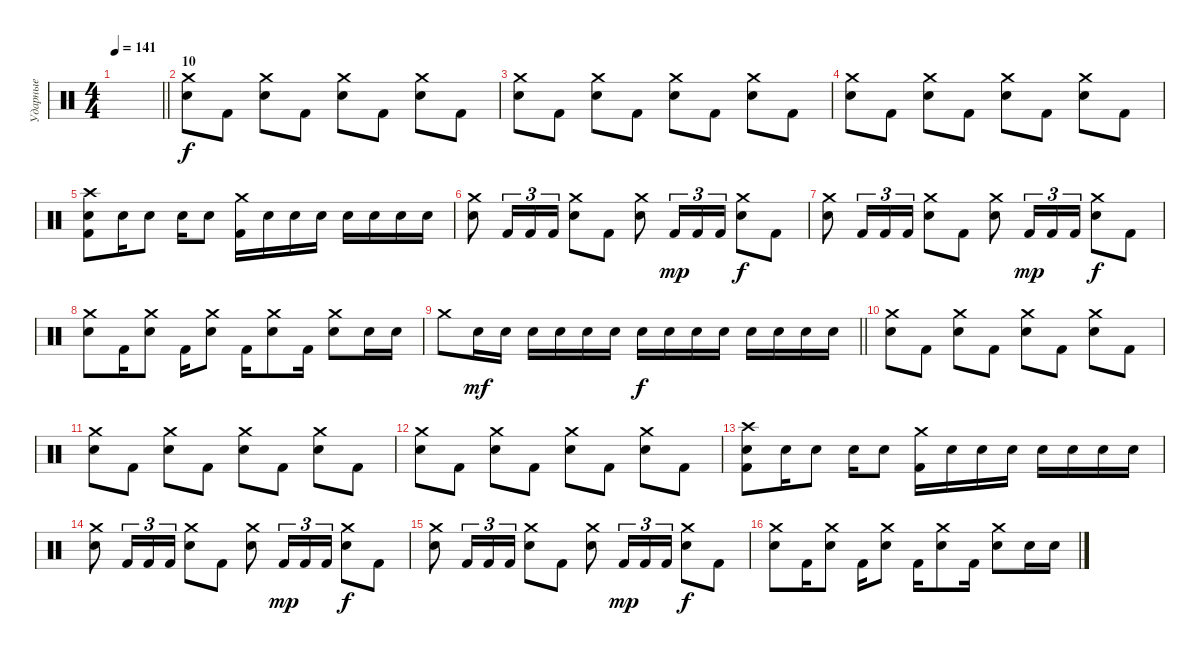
\track ("Ударные" "Ударные") {instrument percussion}
\staff {score}
\articulation defaults
\ts (4 4)
\tempo 141
\clef neutral
\barLineRight lightlight
\ks c
|
\section ("" "10")
("Crash medium (hit)" "Snare (hit) 2").8{dy f} "Kick (hit) 2".8 ("Crash medium (hit)" "Snare (hit) 2").8 "Kick (hit) 2".8 ("Crash medium (hit)" "Snare (hit) 2").8 "Kick (hit) 2".8 ("Crash medium (hit)" "Snare (hit) 2").8 "Kick (hit) 2".8 |
("Crash medium (hit)" "Snare (hit) 2").8 "Kick (hit) 2".8 ("Crash medium (hit)" "Snare (hit) 2").8 "Kick (hit) 2".8 ("Crash medium (hit)" "Snare (hit) 2").8 "Kick (hit) 2".8 ("Crash medium (hit)" "Snare (hit) 2").8 "Kick (hit) 2".8 |
("Crash medium (hit)" "Snare (hit) 2").8 "Kick (hit) 2".8 ("Crash medium (hit)" "Snare (hit) 2").8 "Kick (hit) 2".8 ("Crash medium (hit)" "Snare (hit) 2").8 "Kick (hit) 2".8 ("Crash medium (hit)" "Snare (hit) 2").8 "Kick (hit) 2".8 |
("Crash high (hit)" "Snare (hit) 2" "Kick (hit) 2").8 "Snare (hit) 2".16 "Snare (hit) 2".8 "Snare (hit) 2".16 "Snare (hit) 2".8 ("Crash medium (hit)" "Kick (hit) 2").16 "Snare (hit) 2".16 "Snare (hit) 2".16 "Snare (hit) 2".16 "Snare (hit) 2".16 "Snare (hit) 2".16 "Snare (hit) 2".16 "Snare (hit) 2".16 |
("Crash medium (hit)" "Snare (hit) 2").8 "Kick (hit) 2".16{tu (3 2)} "Kick (hit) 2".16{tu (3 2)} "Kick (hit) 2".16{tu (3 2)} ("Crash medium (hit)" "Snare (hit) 2").8 "Kick (hit) 2".8 ("Crash medium (hit)" "Snare (hit) 2").8 "Kick (hit) 2".16{tu (3 2) dy mp} "Kick (hit) 2".16{tu (3 2)} "Kick (hit) 2".16{tu (3 2)} ("Crash medium (hit)" "Snare (hit) 2").8{dy f} "Kick (hit) 2".8 |
("Crash medium (hit)" "Snare (hit) 2").8 "Kick (hit) 2".16{tu (3 2)} "Kick (hit) 2".16{tu (3 2)} "Kick (hit) 2".16{tu (3 2)} ("Crash medium (hit)" "Snare (hit) 2").8 "Kick (hit) 2".8 ("Crash medium (hit)" "Snare (hit) 2").8 "Kick (hit) 2".16{tu (3 2) dy mp} "Kick (hit) 2".16{tu (3 2)} "Kick (hit) 2".16{tu (3 2)} ("Crash medium (hit)" "Snare (hit) 2").8{dy f} "Kick (hit) 2".8 |
("Crash medium (hit)" "Snare (hit) 2").8 "Kick (hit) 2".16 ("Crash medium (hit)" "Snare (hit) 2").8 "Kick (hit) 2".16 ("Crash medium (hit)" "Snare (hit) 2").8 "Kick (hit) 2".16 ("Crash medium (hit)" "Snare (hit) 2").8 "Kick (hit) 2".16 ("Crash medium (hit)" "Snare (hit) 2").8 "Snare (hit) 2".16 "Snare (hit) 2".16 |
\barLineRight lightlight "Crash medium (hit)".8 "Snare (hit) 2".16{dy mf} "Snare (hit) 2".16 "Snare (hit) 2".16 "Snare (hit) 2".16 "Snare (hit) 2".16 "Snare (hit) 2".16 "Snare (hit) 2".16{dy f} "Snare (hit) 2".16 "Snare (hit) 2".16 "Snare (hit) 2".16 "Snare (hit) 2".16 "Snare (hit) 2".16 "Snare (hit) 2".16 "Snare (hit) 2".16
|
("Crash medium (hit)" "Snare (hit) 2").8 "Kick (hit) 2".8 ("Crash medium (hit)" "Snare (hit) 2").8 "Kick (hit) 2".8 ("Crash medium (hit)" "Snare (hit) 2").8 "Kick (hit) 2".8 ("Crash medium (hit)" "Snare (hit) 2").8 "Kick (hit) 2".8 |
("Crash medium (hit)" "Snare (hit) 2").8 "Kick (hit) 2".8 ("Crash medium (hit)" "Snare (hit) 2").8 "Kick (hit) 2".8 ("Crash medium (hit)" "Snare (hit) 2").8 "Kick (hit) 2".8 ("Crash medium (hit)" "Snare (hit) 2").8 "Kick (hit) 2".8 |
("Crash medium (hit)" "Snare (hit) 2").8 "Kick (hit) 2".8 ("Crash medium (hit)" "Snare (hit) 2").8 "Kick (hit) 2".8 ("Crash medium (hit)" "Snare (hit) 2").8 "Kick (hit) 2".8 ("Crash medium (hit)" "Snare (hit) 2").8 "Kick (hit) 2".8 |
("Crash high (hit)" "Snare (hit) 2" "Kick (hit) 2").8 "Snare (hit) 2".16 "Snare (hit) 2".8 "Snare (hit) 2".16 "Snare (hit) 2".8 ("Crash medium (hit)" "Kick (hit) 2").16 "Snare (hit) 2".16 "Snare (hit) 2".16 "Snare (hit) 2".16 "Snare (hit) 2".16 "Snare (hit) 2".16 "Snare (hit) 2".16 "Snare (hit) 2".16 |
("Crash medium (hit)" "Snare (hit) 2").8 "Kick (hit) 2".16{tu (3 2)} "Kick (hit) 2".16{tu (3 2)} "Kick (hit) 2".16{tu (3 2)} ("Crash medium (hit)" "Snare (hit) 2").8 "Kick (hit) 2".8 ("Crash medium (hit)" "Snare (hit) 2").8 "Kick (hit) 2".16{tu (3 2) dy mp} "Kick (hit) 2".16{tu (3 2)} "Kick (hit) 2".16{tu (3 2)} ("Crash medium (hit)" "Snare (hit) 2").8{dy f} "Kick (hit) 2".8 |
("Crash medium (hit)" "Snare (hit) 2").8 "Kick (hit) 2".16{tu (3 2)} "Kick (hit) 2".16{tu (3 2)} "Kick (hit) 2".16{tu (3 2)} ("Crash medium (hit)" "Snare (hit) 2").8 "Kick (hit) 2".8 ("Crash medium (hit)" "Snare (hit) 2").8 "Kick (hit) 2".16{tu (3 2) dy mp} "Kick (hit) 2".16{tu (3 2)} "Kick (hit) 2".16{tu (3 2)} ("Crash medium (hit)" "Snare (hit) 2").8{dy f} "Kick (hit) 2".8 |
("Crash medium (hit)" "Snare (hit) 2").8 "Kick (hit) 2".16 ("Crash medium (hit)" "Snare (hit) 2").8 "Kick (hit) 2".16 ("Crash medium (hit)" "Snare (hit) 2").8 "Kick (hit) 2".16 ("Crash medium (hit)" "Snare (hit) 2").8 "Kick (hit) 2".16 ("Crash medium (hit)" "Snare (hit) 2").8 "Snare (hit) 2".16 "Snare (hit) 2".16
